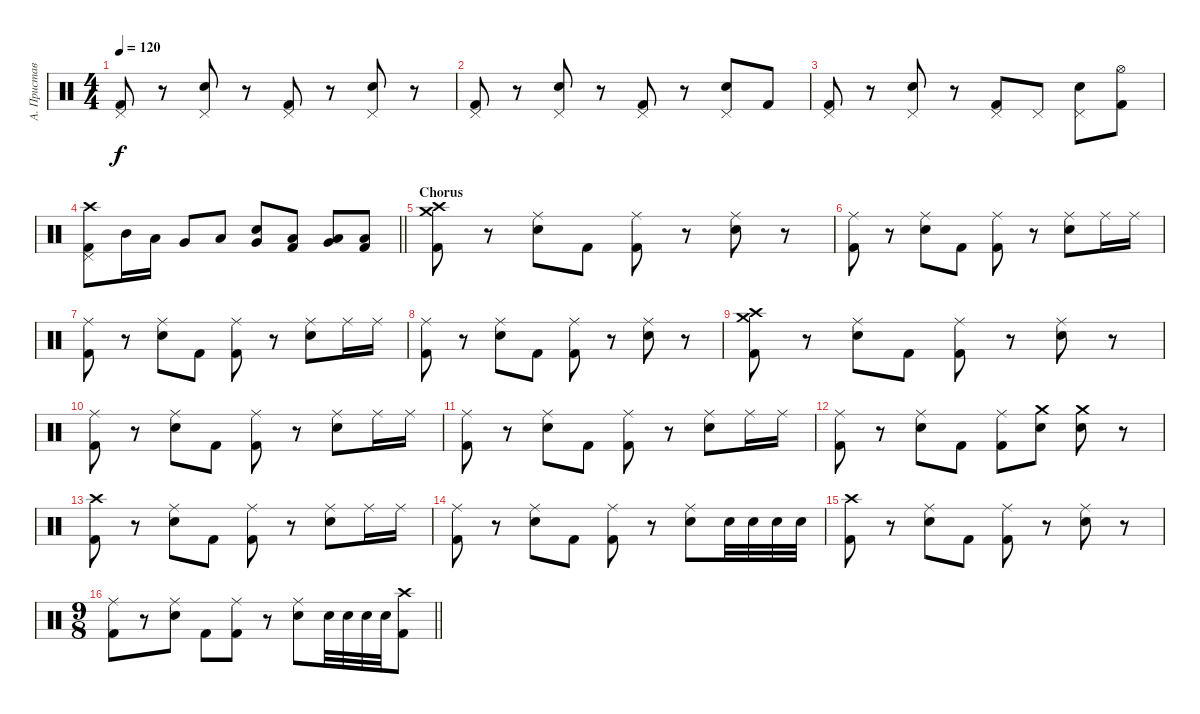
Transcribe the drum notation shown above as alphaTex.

\track ("А. Приставка" "А. Пристав") {instrument percussion}
\staff {score}
\articulation defaults
\ts (4 4)
\tempo 120
\clef neutral
\ks c
("Pedal Hi-Hat (hit)" "Kick (hit) 2").8{dy f} r.8 ("Pedal Hi-Hat (hit)" "Electric Snare (hit)").8 r.8 ("Pedal Hi-Hat (hit)" "Kick (hit) 2").8 r.8 ("Pedal Hi-Hat (hit)" "Electric Snare (hit)").8 r.8 |
("Pedal Hi-Hat (hit)" "Kick (hit) 2").8 r.8 ("Pedal Hi-Hat (hit)" "Electric Snare (hit)").8 r.8 ("Pedal Hi-Hat (hit)" "Kick (hit) 2").8 r.8 ("Pedal Hi-Hat (hit)" "Electric Snare (hit)").8 "Kick (hit) 2".8 |
("Pedal Hi-Hat (hit)" "Kick (hit) 2").8 r.8 ("Pedal Hi-Hat (hit)" "Electric Snare (hit)").8 r.8 ("Pedal Hi-Hat (hit)" "Kick (hit) 2").8 "Pedal Hi-Hat (hit)".8 ("Pedal Hi-Hat (hit)" "Electric Snare (hit)").8 ("Hi-Hat (open)" "Kick (hit) 2").8 |
\barLineRight lightlight
("Crash high (hit)" "Pedal Hi-Hat (hit)" "Kick (hit) 2").8 "Mid Tom (hit)".16 "Low Tom (hit)".16 "Very Low Tom (hit)".8 "Low Floor Tom (hit)".8 ("Electric Snare (hit)" "Very Low Tom (hit)").8 ("Low Floor Tom (hit)" "Kick (hit) 2").8 ("Low Tom (hit)" "Very Low Tom (hit)").8 ("Low Floor Tom (hit)" "Kick (hit) 2").8 |
\section ("" "Chorus")
("Crash high (hit)" "Crash medium (hit)" "Kick (hit) 2").8 r.8 ("Ride (middle)" "Electric Snare (hit)").8 "Kick (hit) 2".8 ("Ride (middle)" "Kick (hit) 2").8 r.8 ("Ride (middle)" "Electric Snare (hit)").8 r.8 |
("Ride (middle)" "Kick (hit) 2").8 r.8 ("Ride (middle)" "Electric Snare (hit)").8 "Kick (hit) 2".8 ("Ride (middle)" "Kick (hit) 2").8 r.8 ("Ride (middle)" "Electric Snare (hit)").8 "Ride (middle)".16 "Ride (middle)".16 |
("Ride (middle)" "Kick (hit) 2").8 r.8 ("Ride (middle)" "Electric Snare (hit)").8 "Kick (hit) 2".8 ("Ride (middle)" "Kick (hit) 2").8 r.8 ("Ride (middle)" "Electric Snare (hit)").8 "Ride (middle)".16 "Ride (middle)".16 |
("Ride (middle)" "Kick (hit) 2").8 r.8 ("Ride (middle)" "Electric Snare (hit)").8 "Kick (hit) 2".8 ("Ride (middle)" "Kick (hit) 2").8 r.8 ("Ride (middle)" "Electric Snare (hit)").8 r.8 |
("Crash high (hit)" "Crash medium (hit)" "Kick (hit) 2").8 r.8 ("Ride (middle)" "Electric Snare (hit)").8 "Kick (hit) 2".8 ("Ride (middle)" "Kick (hit) 2").8 r.8 ("Ride (middle)" "Electric Snare (hit)").8 r.8 |
("Ride (middle)" "Kick (hit) 2").8 r.8 ("Ride (middle)" "Electric Snare (hit)").8 "Kick (hit) 2".8 ("Ride (middle)" "Kick (hit) 2").8 r.8 ("Ride (middle)" "Electric Snare (hit)").8 "Ride (middle)".16 "Ride (middle)".16 |
("Ride (middle)" "Kick (hit) 2").8 r.8 ("Ride (middle)" "Electric Snare (hit)").8 "Kick (hit) 2".8 ("Ride (middle)" "Kick (hit) 2").8 r.8 ("Ride (middle)" "Electric Snare (hit)").8 "Ride (middle)".16 "Ride (middle)".16 |
("Ride (middle)" "Kick (hit) 2").8 r.8 ("Ride (middle)" "Electric Snare (hit)").8 "Kick (hit) 2".8 ("Ride (middle)" "Kick (hit) 2").8 ("Crash medium (hit)" "Electric Snare (hit)").8 ("Crash medium (hit)" "Electric Snare (hit)").8 r.8 |
("Crash high (hit)" "Kick (hit) 2").8 r.8 ("Ride (middle)" "Electric Snare (hit)").8 "Kick (hit) 2".8 ("Ride (middle)" "Kick (hit) 2").8 r.8 ("Ride (middle)" "Electric Snare (hit)").8 "Ride (middle)".16 "Ride (middle)".16 |
("Ride (middle)" "Kick (hit) 2").8 r.8 ("Ride (middle)" "Electric Snare (hit)").8 "Kick (hit) 2".8 ("Ride (middle)" "Kick (hit) 2").8 r.8 ("Ride (middle)" "Electric Snare (hit)").8 "Electric Snare (hit)".32 "Electric Snare (hit)".32 "Electric Snare (hit)".32 "Electric Snare (hit)".32 |
("Crash high (hit)" "Kick (hit) 2").8 r.8 ("Ride (middle)" "Electric Snare (hit)").8 "Kick (hit) 2".8 ("Ride (middle)" "Kick (hit) 2").8 r.8 ("Ride (middle)" "Electric Snare (hit)").8 r.8 |
\ts (9 8)
\barLineRight lightlight
("Ride (middle)" "Kick (hit) 2").8 r.8 ("Ride (middle)" "Electric Snare (hit)").8 "Kick (hit) 2".8 ("Ride (middle)" "Kick (hit) 2").8 r.8 ("Ride (middle)" "Electric Snare (hit)").8 "Electric Snare (hit)".32 "Electric Snare (hit)".32 "Electric Snare (hit)".32 "Electric Snare (hit)".32 ("Crash high (hit)" "Kick (hit) 2").8
